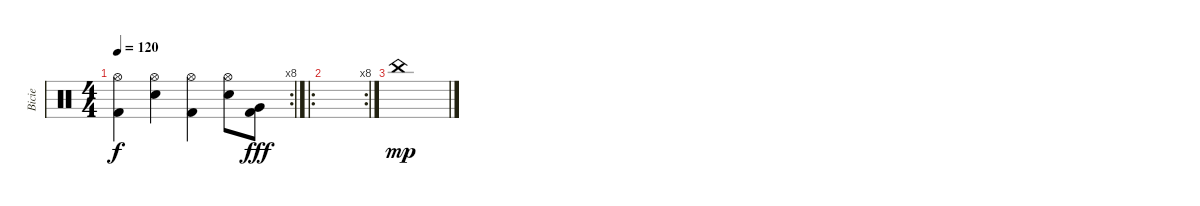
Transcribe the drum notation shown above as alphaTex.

\track ("Bicie" "Bicie") {instrument percussion}
\staff {score}
\articulation defaults
\rc 8
\ts (4 4)
\tempo 120
\clef neutral
\ks c
("Hi-Hat (open)" "Kick (hit) 2").4{dy f} ("Hi-Hat (open)" "Snare (hit) 2").4 ("Hi-Hat (open)" "Kick (hit) 2").4 ("Hi-Hat (open)" "Snare (hit) 2").8 ("Kick (hit) 2" "Very Low Tom (hit)").8{dy fff} |
\ro
\rc 8
|
"China (hit)".1{dy mp}
